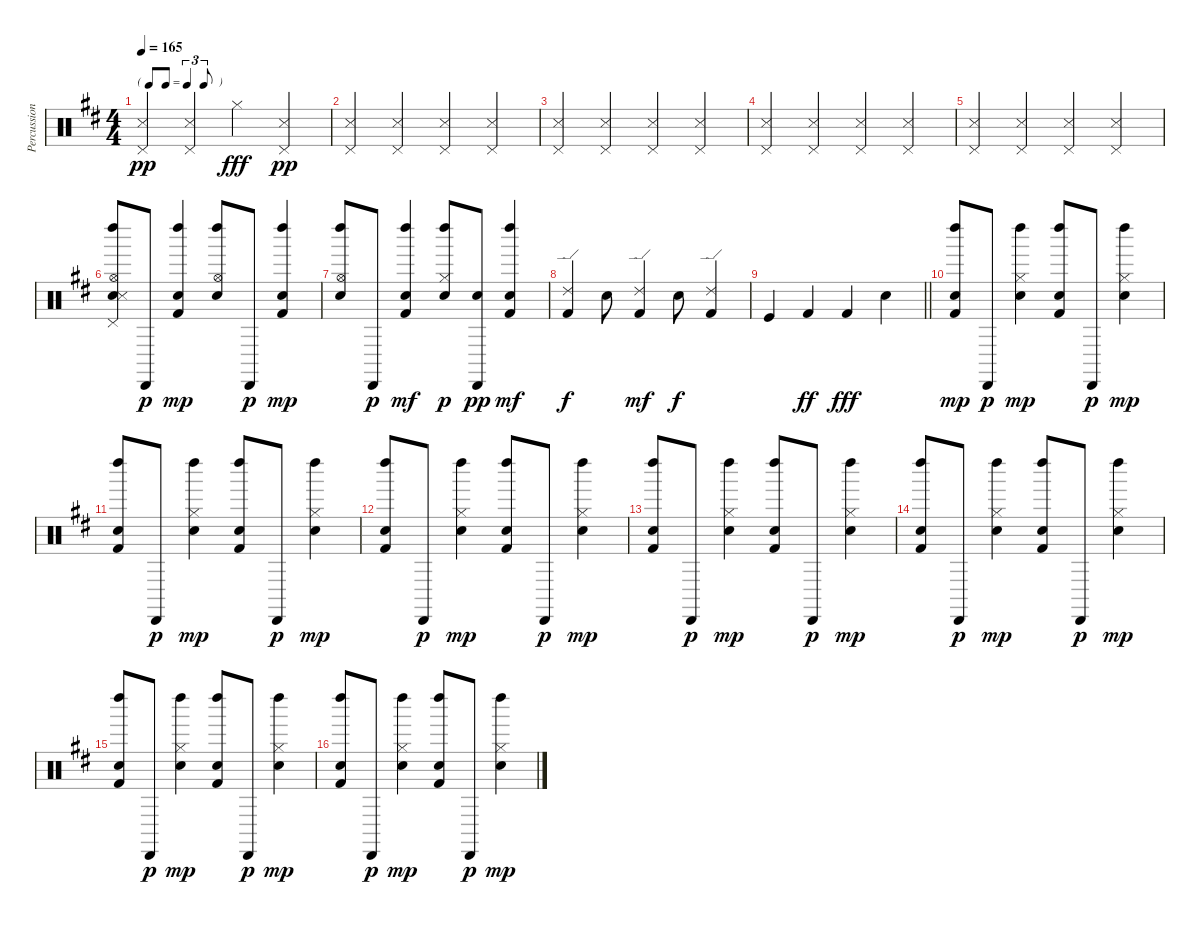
\track ("Percussion" "Percussion") {instrument percussion}
\staff {score}
\articulation defaults
\ts (4 4)
\tf triplet8th
\tempo 165
\clef neutral
\ks d
("Pedal Hi-Hat (hit)" "Snare (side stick) 3").4{dy pp} ("Pedal Hi-Hat (hit)" "Snare (side stick) 3").4 "Hi-Hat (closed)".4{dy fff} ("Pedal Hi-Hat (hit)" "Snare (side stick) 3").4{dy pp} |
("Pedal Hi-Hat (hit)" "Snare (side stick) 3").4 ("Pedal Hi-Hat (hit)" "Snare (side stick) 3").4 ("Pedal Hi-Hat (hit)" "Snare (side stick) 3").4 ("Pedal Hi-Hat (hit)" "Snare (side stick) 3").4 |
("Pedal Hi-Hat (hit)" "Snare (side stick) 3").4 ("Pedal Hi-Hat (hit)" "Snare (side stick) 3").4 ("Pedal Hi-Hat (hit)" "Snare (side stick) 3").4 ("Pedal Hi-Hat (hit)" "Snare (side stick) 3").4 |
("Pedal Hi-Hat (hit)" "Snare (side stick) 3").4 ("Pedal Hi-Hat (hit)" "Snare (side stick) 3").4 ("Pedal Hi-Hat (hit)" "Snare (side stick) 3").4 ("Pedal Hi-Hat (hit)" "Snare (side stick) 3").4 |
("Pedal Hi-Hat (hit)" "Snare (side stick) 3").4 ("Pedal Hi-Hat (hit)" "Snare (side stick) 3").4 ("Pedal Hi-Hat (hit)" "Snare (side stick) 3").4 ("Pedal Hi-Hat (hit)" "Snare (side stick) 3").4 |
("Snare (hit) 2" "Hi-Hat (open)" "Left Maraca (hit)" "Pedal Hi-Hat (hit)" "Snare (side stick) 3").8 "Cabasa (hit)".8{dy p} ("Snare (hit) 2" "Kick (hit) 2" "Left Maraca (hit)").4{dy mp} ("Snare (hit) 2" "Left Maraca (hit)" "Hi-Hat (open)").8 "Cabasa (hit)".8{dy p} ("Kick (hit) 2" "Snare (hit) 2" "Left Maraca (hit)").4{dy mp} |
("Snare (hit) 2" "Left Maraca (hit)" "Hi-Hat (open)").8 "Cabasa (hit)".8{dy p} ("Snare (hit) 2" "Left Maraca (hit)" "Kick (hit) 2").4{dy mf} ("Hi-Hat (closed)" "Snare (hit) 2" "Left Maraca (hit)").8{dy p} ("Snare (hit) 2" "Cabasa (hit)").8{dy pp} ("Snare (hit) 2" "Left Maraca (hit)" "Kick (hit) 2").4{dy mf} |
("Kick (hit) 2" "Ride (edge) 2").4{dy f} "Snare (hit) 2".8 ("Ride (edge) 2" "Kick (hit) 2").4{dy mf} "Snare (hit) 2".8{dy f} ("Kick (hit) 2" "Ride (edge) 2").4 |
\barLineRight lightlight "Kick (hit)".4 "Kick (hit) 2".4{dy ff} "Kick (hit) 2".4{dy fff} "Snare (hit) 2".4
|
("Left Maraca (hit)" "Snare (hit) 2" "Kick (hit) 2").8{dy mp} "Cabasa (hit)".8{dy p} ("Left Maraca (hit)" "Hi-Hat (closed)" "Snare (hit) 2").4{dy mp} ("Left Maraca (hit)" "Snare (hit) 2" "Kick (hit) 2").8 "Cabasa (hit)".8{dy p} ("Left Maraca (hit)" "Hi-Hat (closed)" "Snare (hit) 2").4{dy mp} |
("Left Maraca (hit)" "Snare (hit) 2" "Kick (hit) 2").8 "Cabasa (hit)".8{dy p} ("Left Maraca (hit)" "Hi-Hat (closed)" "Snare (hit) 2").4{dy mp} ("Left Maraca (hit)" "Snare (hit) 2" "Kick (hit) 2").8 "Cabasa (hit)".8{dy p} ("Left Maraca (hit)" "Hi-Hat (closed)" "Snare (hit) 2").4{dy mp} |
("Left Maraca (hit)" "Snare (hit) 2" "Kick (hit) 2").8 "Cabasa (hit)".8{dy p} ("Left Maraca (hit)" "Hi-Hat (closed)" "Snare (hit) 2").4{dy mp} ("Left Maraca (hit)" "Snare (hit) 2" "Kick (hit) 2").8 "Cabasa (hit)".8{dy p} ("Left Maraca (hit)" "Hi-Hat (closed)" "Snare (hit) 2").4{dy mp} |
("Left Maraca (hit)" "Snare (hit) 2" "Kick (hit) 2").8 "Cabasa (hit)".8{dy p} ("Left Maraca (hit)" "Hi-Hat (closed)" "Snare (hit) 2").4{dy mp} ("Left Maraca (hit)" "Snare (hit) 2" "Kick (hit) 2").8 "Cabasa (hit)".8{dy p} ("Left Maraca (hit)" "Hi-Hat (closed)" "Snare (hit) 2").4{dy mp} |
("Left Maraca (hit)" "Snare (hit) 2" "Kick (hit) 2").8 "Cabasa (hit)".8{dy p} ("Left Maraca (hit)" "Hi-Hat (closed)" "Snare (hit) 2").4{dy mp} ("Left Maraca (hit)" "Snare (hit) 2" "Kick (hit) 2").8 "Cabasa (hit)".8{dy p} ("Left Maraca (hit)" "Hi-Hat (closed)" "Snare (hit) 2").4{dy mp} |
("Left Maraca (hit)" "Snare (hit) 2" "Kick (hit) 2").8 "Cabasa (hit)".8{dy p} ("Left Maraca (hit)" "Hi-Hat (closed)" "Snare (hit) 2").4{dy mp} ("Left Maraca (hit)" "Snare (hit) 2" "Kick (hit) 2").8 "Cabasa (hit)".8{dy p} ("Left Maraca (hit)" "Hi-Hat (closed)" "Snare (hit) 2").4{dy mp} |
("Left Maraca (hit)" "Snare (hit) 2" "Kick (hit) 2").8 "Cabasa (hit)".8{dy p} ("Left Maraca (hit)" "Hi-Hat (closed)" "Snare (hit) 2").4{dy mp} ("Left Maraca (hit)" "Snare (hit) 2" "Kick (hit) 2").8 "Cabasa (hit)".8{dy p} ("Left Maraca (hit)" "Hi-Hat (closed)" "Snare (hit) 2").4{dy mp}
